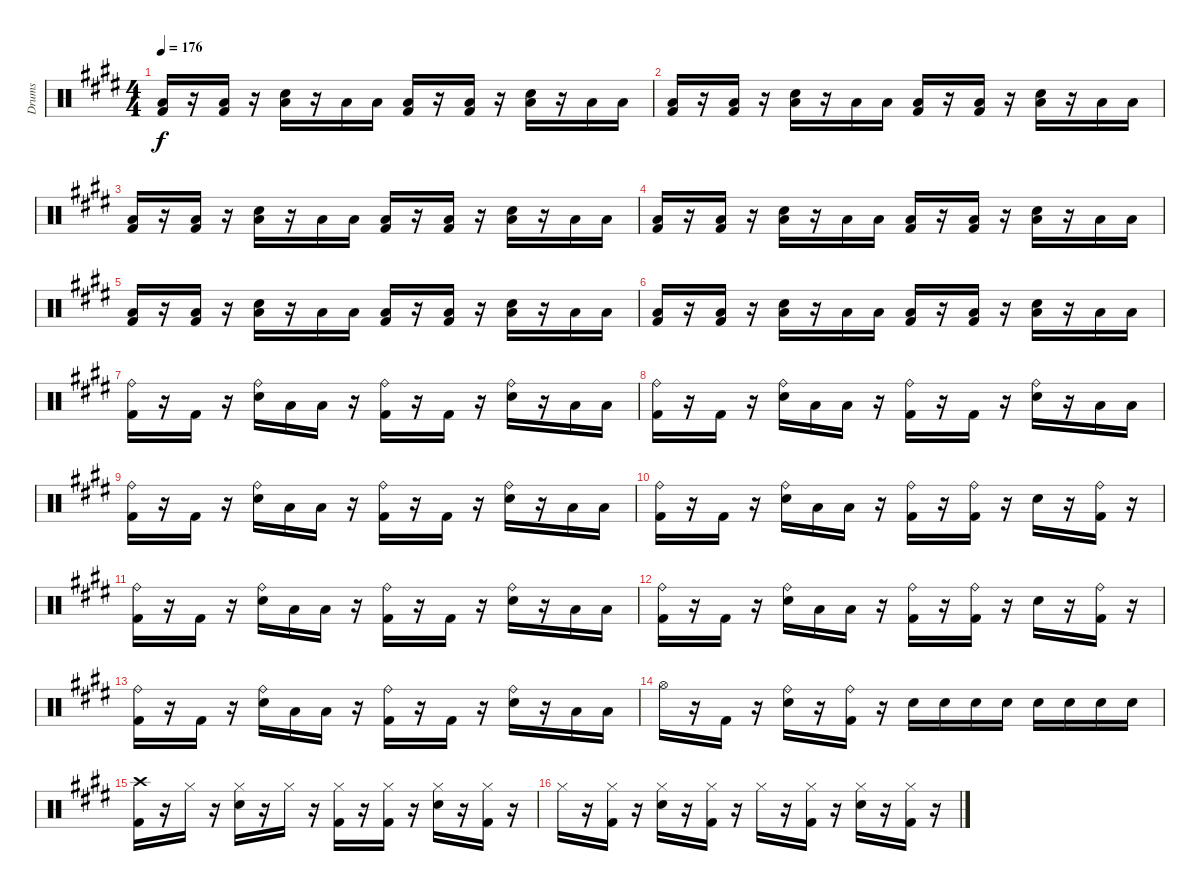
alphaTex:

\track ("Drums" "Drums") {instrument percussion}
\staff {score}
\articulation defaults
\ts (4 4)
\tempo 176
\clef neutral
\ks e
("Low Floor Tom (hit)" "Kick (hit) 2").16{dy f} r.16 ("Low Floor Tom (hit)" "Kick (hit) 2").16 r.16 ("Low Floor Tom (hit)" "Electric Snare (hit)").16 r.16 "Low Floor Tom (hit)".16 "Low Floor Tom (hit)".16 ("Low Floor Tom (hit)" "Kick (hit) 2").16 r.16 ("Low Floor Tom (hit)" "Kick (hit) 2").16 r.16 ("Low Floor Tom (hit)" "Electric Snare (hit)").16 r.16 "Low Floor Tom (hit)".16 "Low Floor Tom (hit)".16 |
("Low Floor Tom (hit)" "Kick (hit) 2").16 r.16 ("Low Floor Tom (hit)" "Kick (hit) 2").16 r.16 ("Low Floor Tom (hit)" "Electric Snare (hit)").16 r.16 "Low Floor Tom (hit)".16 "Low Floor Tom (hit)".16 ("Low Floor Tom (hit)" "Kick (hit) 2").16 r.16 ("Low Floor Tom (hit)" "Kick (hit) 2").16 r.16 ("Low Floor Tom (hit)" "Electric Snare (hit)").16 r.16 "Low Floor Tom (hit)".16 "Low Floor Tom (hit)".16 |
("Low Floor Tom (hit)" "Kick (hit) 2").16 r.16 ("Low Floor Tom (hit)" "Kick (hit) 2").16 r.16 ("Low Floor Tom (hit)" "Electric Snare (hit)").16 r.16 "Low Floor Tom (hit)".16 "Low Floor Tom (hit)".16 ("Low Floor Tom (hit)" "Kick (hit) 2").16 r.16 ("Low Floor Tom (hit)" "Kick (hit) 2").16 r.16 ("Low Floor Tom (hit)" "Electric Snare (hit)").16 r.16 "Low Floor Tom (hit)".16 "Low Floor Tom (hit)".16 |
("Low Floor Tom (hit)" "Kick (hit) 2").16 r.16 ("Low Floor Tom (hit)" "Kick (hit) 2").16 r.16 ("Low Floor Tom (hit)" "Electric Snare (hit)").16 r.16 "Low Floor Tom (hit)".16 "Low Floor Tom (hit)".16 ("Low Floor Tom (hit)" "Kick (hit) 2").16 r.16 ("Low Floor Tom (hit)" "Kick (hit) 2").16 r.16 ("Low Floor Tom (hit)" "Electric Snare (hit)").16 r.16 "Low Floor Tom (hit)".16 "Low Floor Tom (hit)".16 |
("Low Floor Tom (hit)" "Kick (hit) 2").16 r.16 ("Low Floor Tom (hit)" "Kick (hit) 2").16 r.16 ("Low Floor Tom (hit)" "Electric Snare (hit)").16 r.16 "Low Floor Tom (hit)".16 "Low Floor Tom (hit)".16 ("Low Floor Tom (hit)" "Kick (hit) 2").16 r.16 ("Low Floor Tom (hit)" "Kick (hit) 2").16 r.16 ("Low Floor Tom (hit)" "Electric Snare (hit)").16 r.16 "Low Floor Tom (hit)".16 "Low Floor Tom (hit)".16 |
("Low Floor Tom (hit)" "Kick (hit) 2").16 r.16 ("Low Floor Tom (hit)" "Kick (hit) 2").16 r.16 ("Low Floor Tom (hit)" "Electric Snare (hit)").16 r.16 "Low Floor Tom (hit)".16 "Low Floor Tom (hit)".16 ("Low Floor Tom (hit)" "Kick (hit) 2").16 r.16 ("Low Floor Tom (hit)" "Kick (hit) 2").16 r.16 ("Low Floor Tom (hit)" "Electric Snare (hit)").16 r.16 "Low Floor Tom (hit)".16 "Low Floor Tom (hit)".16 |
("Ride (bell)" "Kick (hit) 2").16 r.16 "Kick (hit) 2".16 r.16 ("Ride (bell)" "Electric Snare (hit)").16 "Low Floor Tom (hit)".16 "Low Floor Tom (hit)".16 r.16 ("Ride (bell)" "Kick (hit) 2").16 r.16 "Kick (hit) 2".16 r.16 ("Ride (bell)" "Electric Snare (hit)").16 r.16 "Low Floor Tom (hit)".16 "Low Floor Tom (hit)".16 |
("Ride (bell)" "Kick (hit) 2").16 r.16 "Kick (hit) 2".16 r.16 ("Ride (bell)" "Electric Snare (hit)").16 "Low Floor Tom (hit)".16 "Low Floor Tom (hit)".16 r.16 ("Ride (bell)" "Kick (hit) 2").16 r.16 "Kick (hit) 2".16 r.16 ("Ride (bell)" "Electric Snare (hit)").16 r.16 "Low Floor Tom (hit)".16 "Low Floor Tom (hit)".16 |
("Ride (bell)" "Kick (hit) 2").16 r.16 "Kick (hit) 2".16 r.16 ("Ride (bell)" "Electric Snare (hit)").16 "Low Floor Tom (hit)".16 "Low Floor Tom (hit)".16 r.16 ("Ride (bell)" "Kick (hit) 2").16 r.16 "Kick (hit) 2".16 r.16 ("Ride (bell)" "Electric Snare (hit)").16 r.16 "Low Floor Tom (hit)".16 "Low Floor Tom (hit)".16 |
("Ride (bell)" "Kick (hit) 2").16 r.16 "Kick (hit) 2".16 r.16 ("Ride (bell)" "Electric Snare (hit)").16 "Low Floor Tom (hit)".16 "Low Floor Tom (hit)".16 r.16 ("Ride (bell)" "Kick (hit) 2").16 r.16 ("Ride (bell)" "Kick (hit) 2").16 r.16 "Electric Snare (hit)".16 r.16 ("Ride (bell)" "Kick (hit) 2").16 r.16 |
("Ride (bell)" "Kick (hit) 2").16 r.16 "Kick (hit) 2".16 r.16 ("Ride (bell)" "Electric Snare (hit)").16 "Low Floor Tom (hit)".16 "Low Floor Tom (hit)".16 r.16 ("Ride (bell)" "Kick (hit) 2").16 r.16 "Kick (hit) 2".16 r.16 ("Ride (bell)" "Electric Snare (hit)").16 r.16 "Low Floor Tom (hit)".16 "Low Floor Tom (hit)".16 |
("Ride (bell)" "Kick (hit) 2").16 r.16 "Kick (hit) 2".16 r.16 ("Ride (bell)" "Electric Snare (hit)").16 "Low Floor Tom (hit)".16 "Low Floor Tom (hit)".16 r.16 ("Ride (bell)" "Kick (hit) 2").16 r.16 ("Ride (bell)" "Kick (hit) 2").16 r.16 "Electric Snare (hit)".16 r.16 ("Ride (bell)" "Kick (hit) 2").16 r.16 |
("Ride (bell)" "Kick (hit) 2").16 r.16 "Kick (hit) 2".16 r.16 ("Ride (bell)" "Electric Snare (hit)").16 "Low Floor Tom (hit)".16 "Low Floor Tom (hit)".16 r.16 ("Ride (bell)" "Kick (hit) 2").16 r.16 "Kick (hit) 2".16 r.16 ("Ride (bell)" "Electric Snare (hit)").16 r.16 "Low Floor Tom (hit)".16 "Low Floor Tom (hit)".16 |
"Hi-Hat (open)".16 r.16 "Kick (hit) 2".16 r.16 ("Ride (bell)" "Electric Snare (hit)").16 r.16 ("Ride (bell)" "Kick (hit) 2").16 r.16 "Electric Snare (hit)".16 "Electric Snare (hit)".16 "Electric Snare (hit)".16 "Electric Snare (hit)".16 "Electric Snare (hit)".16 "Electric Snare (hit)".16 "Electric Snare (hit)".16 "Electric Snare (hit)".16 |
("Crash high (hit)" "Kick (hit) 2").16 r.16 "Hi-Hat (closed)".16 r.16 ("Hi-Hat (closed)" "Electric Snare (hit)").16 r.16 "Hi-Hat (closed)".16 r.16 ("Hi-Hat (closed)" "Kick (hit) 2").16 r.16 ("Hi-Hat (closed)" "Kick (hit) 2").16 r.16 ("Hi-Hat (closed)" "Electric Snare (hit)").16 r.16 ("Hi-Hat (closed)" "Kick (hit) 2").16 r.16 |
"Hi-Hat (closed)".16 r.16 ("Hi-Hat (closed)" "Kick (hit) 2").16 r.16 ("Hi-Hat (closed)" "Electric Snare (hit)").16 r.16 ("Hi-Hat (closed)" "Kick (hit) 2").16 r.16 "Hi-Hat (closed)".16 r.16 ("Hi-Hat (closed)" "Kick (hit) 2").16 r.16 ("Hi-Hat (closed)" "Electric Snare (hit)").16 r.16 ("Hi-Hat (closed)" "Kick (hit) 2").16 r.16
